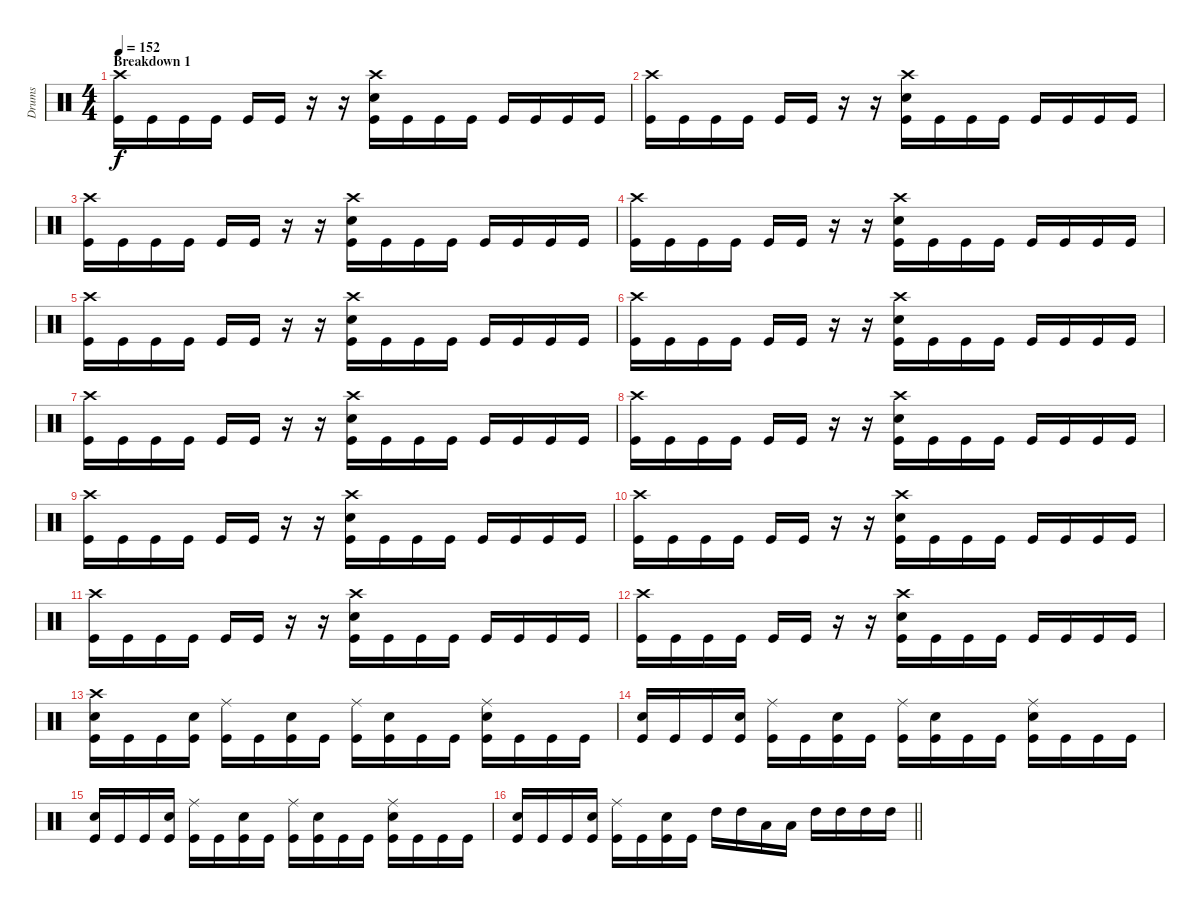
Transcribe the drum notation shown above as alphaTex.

\track ("Drums" "Drums") {instrument percussion}
\staff {score}
\articulation defaults
\ts (4 4)
\section ("" "Breakdown 1")
\tempo 152
\clef neutral
\ks c
("Crash high (hit)" "Kick (hit)").16{dy f} "Kick (hit)".16 "Kick (hit)".16 "Kick (hit)".16 "Kick (hit)".16 "Kick (hit)".16 r.16 r.16 ("Snare (hit) 2" "Crash high (hit)" "Kick (hit)").16 "Kick (hit)".16 "Kick (hit)".16 "Kick (hit)".16 "Kick (hit)".16 "Kick (hit)".16 "Kick (hit)".16 "Kick (hit)".16 |
("Crash high (hit)" "Kick (hit)").16 "Kick (hit)".16 "Kick (hit)".16 "Kick (hit)".16 "Kick (hit)".16 "Kick (hit)".16 r.16 r.16 ("Snare (hit) 2" "Crash high (hit)" "Kick (hit)").16 "Kick (hit)".16 "Kick (hit)".16 "Kick (hit)".16 "Kick (hit)".16 "Kick (hit)".16 "Kick (hit)".16 "Kick (hit)".16 |
("Crash high (hit)" "Kick (hit)").16 "Kick (hit)".16 "Kick (hit)".16 "Kick (hit)".16 "Kick (hit)".16 "Kick (hit)".16 r.16 r.16 ("Snare (hit) 2" "Crash high (hit)" "Kick (hit)").16 "Kick (hit)".16 "Kick (hit)".16 "Kick (hit)".16 "Kick (hit)".16 "Kick (hit)".16 "Kick (hit)".16 "Kick (hit)".16 |
("Crash high (hit)" "Kick (hit)").16 "Kick (hit)".16 "Kick (hit)".16 "Kick (hit)".16 "Kick (hit)".16 "Kick (hit)".16 r.16 r.16 ("Snare (hit) 2" "Crash high (hit)" "Kick (hit)").16 "Kick (hit)".16 "Kick (hit)".16 "Kick (hit)".16 "Kick (hit)".16 "Kick (hit)".16 "Kick (hit)".16 "Kick (hit)".16 |
("Crash high (hit)" "Kick (hit)").16 "Kick (hit)".16 "Kick (hit)".16 "Kick (hit)".16 "Kick (hit)".16 "Kick (hit)".16 r.16 r.16 ("Snare (hit) 2" "Crash high (hit)" "Kick (hit)").16 "Kick (hit)".16 "Kick (hit)".16 "Kick (hit)".16 "Kick (hit)".16 "Kick (hit)".16 "Kick (hit)".16 "Kick (hit)".16 |
("Crash high (hit)" "Kick (hit)").16 "Kick (hit)".16 "Kick (hit)".16 "Kick (hit)".16 "Kick (hit)".16 "Kick (hit)".16 r.16 r.16 ("Snare (hit) 2" "Crash high (hit)" "Kick (hit)").16 "Kick (hit)".16 "Kick (hit)".16 "Kick (hit)".16 "Kick (hit)".16 "Kick (hit)".16 "Kick (hit)".16 "Kick (hit)".16 |
("Crash high (hit)" "Kick (hit)").16 "Kick (hit)".16 "Kick (hit)".16 "Kick (hit)".16 "Kick (hit)".16 "Kick (hit)".16 r.16 r.16 ("Snare (hit) 2" "Crash high (hit)" "Kick (hit)").16 "Kick (hit)".16 "Kick (hit)".16 "Kick (hit)".16 "Kick (hit)".16 "Kick (hit)".16 "Kick (hit)".16 "Kick (hit)".16 |
("Crash high (hit)" "Kick (hit)").16 "Kick (hit)".16 "Kick (hit)".16 "Kick (hit)".16 "Kick (hit)".16 "Kick (hit)".16 r.16 r.16 ("Snare (hit) 2" "Crash high (hit)" "Kick (hit)").16 "Kick (hit)".16 "Kick (hit)".16 "Kick (hit)".16 "Kick (hit)".16 "Kick (hit)".16 "Kick (hit)".16 "Kick (hit)".16 |
("Crash high (hit)" "Kick (hit)").16 "Kick (hit)".16 "Kick (hit)".16 "Kick (hit)".16 "Kick (hit)".16 "Kick (hit)".16 r.16 r.16 ("Snare (hit) 2" "Crash high (hit)" "Kick (hit)").16 "Kick (hit)".16 "Kick (hit)".16 "Kick (hit)".16 "Kick (hit)".16 "Kick (hit)".16 "Kick (hit)".16 "Kick (hit)".16 |
("Crash high (hit)" "Kick (hit)").16 "Kick (hit)".16 "Kick (hit)".16 "Kick (hit)".16 "Kick (hit)".16 "Kick (hit)".16 r.16 r.16 ("Snare (hit) 2" "Crash high (hit)" "Kick (hit)").16 "Kick (hit)".16 "Kick (hit)".16 "Kick (hit)".16 "Kick (hit)".16 "Kick (hit)".16 "Kick (hit)".16 "Kick (hit)".16 |
("Crash high (hit)" "Kick (hit)").16 "Kick (hit)".16 "Kick (hit)".16 "Kick (hit)".16 "Kick (hit)".16 "Kick (hit)".16 r.16 r.16 ("Snare (hit) 2" "Crash high (hit)" "Kick (hit)").16 "Kick (hit)".16 "Kick (hit)".16 "Kick (hit)".16 "Kick (hit)".16 "Kick (hit)".16 "Kick (hit)".16 "Kick (hit)".16 |
("Crash high (hit)" "Kick (hit)").16 "Kick (hit)".16 "Kick (hit)".16 "Kick (hit)".16 "Kick (hit)".16 "Kick (hit)".16 r.16 r.16 ("Snare (hit) 2" "Crash high (hit)" "Kick (hit)").16 "Kick (hit)".16 "Kick (hit)".16 "Kick (hit)".16 "Kick (hit)".16 "Kick (hit)".16 "Kick (hit)".16 "Kick (hit)".16 |
("Crash high (hit)" "Snare (hit) 2" "Kick (hit)").16 "Kick (hit)".16 "Kick (hit)".16 ("Snare (hit) 2" "Kick (hit)").16 ("Ride (middle)" "Kick (hit)").16 "Kick (hit)".16 ("Snare (hit) 2" "Kick (hit)").16 "Kick (hit)".16 ("Ride (middle)" "Kick (hit)").16 ("Snare (hit) 2" "Kick (hit)").16 "Kick (hit)".16 "Kick (hit)".16 ("Ride (middle)" "Snare (hit) 2" "Kick (hit)").16 "Kick (hit)".16 "Kick (hit)".16 "Kick (hit)".16 |
("Snare (hit) 2" "Kick (hit)").16 "Kick (hit)".16 "Kick (hit)".16 ("Snare (hit) 2" "Kick (hit)").16 ("Ride (middle)" "Kick (hit)").16 "Kick (hit)".16 ("Snare (hit) 2" "Kick (hit)").16 "Kick (hit)".16 ("Ride (middle)" "Kick (hit)").16 ("Snare (hit) 2" "Kick (hit)").16 "Kick (hit)".16 "Kick (hit)".16 ("Ride (middle)" "Snare (hit) 2" "Kick (hit)").16 "Kick (hit)".16 "Kick (hit)".16 "Kick (hit)".16 |
("Snare (hit) 2" "Kick (hit)").16 "Kick (hit)".16 "Kick (hit)".16 ("Snare (hit) 2" "Kick (hit)").16 ("Ride (middle)" "Kick (hit)").16 "Kick (hit)".16 ("Snare (hit) 2" "Kick (hit)").16 "Kick (hit)".16 ("Ride (middle)" "Kick (hit)").16 ("Snare (hit) 2" "Kick (hit)").16 "Kick (hit)".16 "Kick (hit)".16 ("Ride (middle)" "Snare (hit) 2" "Kick (hit)").16 "Kick (hit)".16 "Kick (hit)".16 "Kick (hit)".16 |
\barLineRight lightlight
("Snare (hit) 2" "Kick (hit)").16 "Kick (hit)".16 "Kick (hit)".16 ("Snare (hit) 2" "Kick (hit)").16 ("Ride (middle)" "Kick (hit)").16 "Kick (hit)".16 ("Snare (hit) 2" "Kick (hit)").16 "Kick (hit)".16 "High Tom (hit)".16 "High Tom (hit)".16 "Low Tom (hit)".16 "Low Tom (hit)".16 "High Tom (hit)".16 "High Tom (hit)".16 "High Tom (hit)".16 "High Tom (hit)".16
